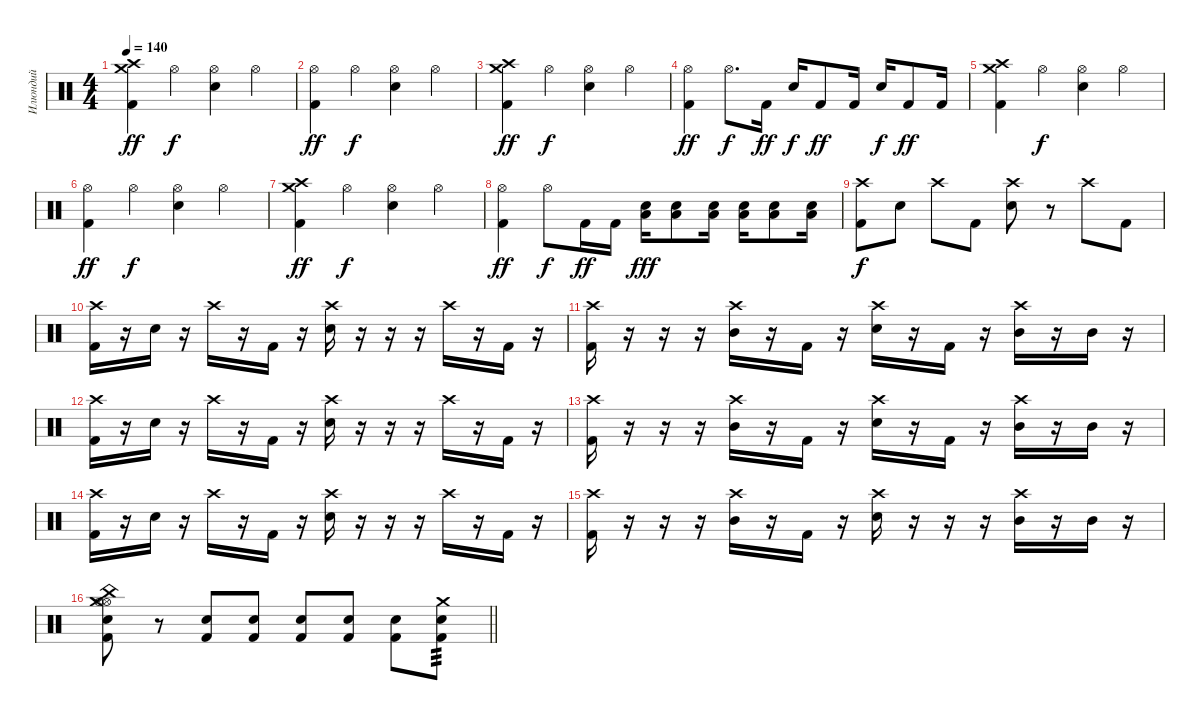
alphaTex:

\track ("Илюндий" "Илюндий") {instrument percussion}
\staff {score}
\articulation defaults
\ts (4 4)
\tempo 140
\clef neutral
\ks c
("Crash medium (hit)" "Crash high (hit)" "Kick (hit) 2").4{dy ff} "Hi-Hat (open)".4{dy f} ("Hi-Hat (open)" "Electric Snare (hit)").4 "Hi-Hat (open)".4 |
("Hi-Hat (open)" "Kick (hit) 2").4{dy ff} "Hi-Hat (open)".4{dy f} ("Hi-Hat (open)" "Electric Snare (hit)").4 "Hi-Hat (open)".4 |
("Crash medium (hit)" "Crash high (hit)" "Kick (hit) 2").4{dy ff} "Hi-Hat (open)".4{dy f} ("Hi-Hat (open)" "Electric Snare (hit)").4 "Hi-Hat (open)".4 |
("Hi-Hat (open)" "Kick (hit) 2").4{dy ff} "Hi-Hat (open)".8{d dy f} "Kick (hit) 2".16{dy ff} "Electric Snare (hit)".16{dy f} "Kick (hit) 2".8{dy ff} "Kick (hit) 2".16 "Electric Snare (hit)".16{dy f} "Kick (hit) 2".8{dy ff} "Kick (hit) 2".16 |
("Crash medium (hit)" "Crash high (hit)" "Kick (hit) 2").4 "Hi-Hat (open)".4{dy f} ("Hi-Hat (open)" "Electric Snare (hit)").4 "Hi-Hat (open)".4 |
("Hi-Hat (open)" "Kick (hit) 2").4{dy ff} "Hi-Hat (open)".4{dy f} ("Hi-Hat (open)" "Electric Snare (hit)").4 "Hi-Hat (open)".4 |
("Crash medium (hit)" "Crash high (hit)" "Kick (hit) 2").4{dy ff} "Hi-Hat (open)".4{dy f} ("Hi-Hat (open)" "Electric Snare (hit)").4 "Hi-Hat (open)".4 |
("Hi-Hat (open)" "Kick (hit) 2").4{dy ff} "Hi-Hat (open)".8{dy f} "Kick (hit) 2".16{dy ff} "Kick (hit) 2".16 ("Electric Snare (hit)" "Low Floor Tom (hit)").16{dy fff} ("Electric Snare (hit)" "Low Floor Tom (hit)").8 ("Electric Snare (hit)" "Low Floor Tom (hit)").16 ("Electric Snare (hit)" "Low Floor Tom (hit)").16 ("Electric Snare (hit)" "Low Floor Tom (hit)").8 ("Electric Snare (hit)" "Low Floor Tom (hit)").16 |
("Crash high (hit)" "Kick (hit) 2").8{dy f} "Electric Snare (hit)".8 "Crash high (hit)".8 "Kick (hit) 2".8 ("Crash high (hit)" "Electric Snare (hit)").8 r.8 "Crash high (hit)".8 "Kick (hit) 2".8 |
("Crash high (hit)" "Kick (hit) 2").16 r.16 "Electric Snare (hit)".16 r.16 "Crash high (hit)".16 r.16 "Kick (hit) 2".16 r.16 ("Crash high (hit)" "Electric Snare (hit)").16 r.16 r.16 r.16 "Crash high (hit)".16 r.16 "Kick (hit) 2".16 r.16 |
("Crash high (hit)" "Kick (hit) 2").16 r.16 r.16 r.16 ("Crash high (hit)" "Mid Tom (hit)").16 r.16 "Kick (hit) 2".16 r.16 ("Crash high (hit)" "Electric Snare (hit)").16 r.16 "Kick (hit) 2".16 r.16 ("Crash high (hit)" "Mid Tom (hit)").16 r.16 "Mid Tom (hit)".16 r.16 |
("Crash high (hit)" "Kick (hit) 2").16 r.16 "Electric Snare (hit)".16 r.16 "Crash high (hit)".16 r.16 "Kick (hit) 2".16 r.16 ("Crash high (hit)" "Electric Snare (hit)").16 r.16 r.16 r.16 "Crash high (hit)".16 r.16 "Kick (hit) 2".16 r.16 |
("Crash high (hit)" "Kick (hit) 2").16 r.16 r.16 r.16 ("Crash high (hit)" "Mid Tom (hit)").16 r.16 "Kick (hit) 2".16 r.16 ("Crash high (hit)" "Electric Snare (hit)").16 r.16 "Kick (hit) 2".16 r.16 ("Crash high (hit)" "Mid Tom (hit)").16 r.16 "Mid Tom (hit)".16 r.16 |
("Crash high (hit)" "Kick (hit) 2").16 r.16 "Electric Snare (hit)".16 r.16 "Crash high (hit)".16 r.16 "Kick (hit) 2".16 r.16 ("Crash high (hit)" "Electric Snare (hit)").16 r.16 r.16 r.16 "Crash high (hit)".16 r.16 "Kick (hit) 2".16 r.16 |
("Crash high (hit)" "Kick (hit) 2").16 r.16 r.16 r.16 ("Crash high (hit)" "Mid Tom (hit)").16 r.16 "Kick (hit) 2".16 r.16 ("Crash high (hit)" "Electric Snare (hit)").16 r.16 r.16 r.16 ("Crash high (hit)" "Mid Tom (hit)").16 r.16 "Mid Tom (hit)".16 r.16 |
\barLineRight lightlight
("Hi-Hat (open)" "Crash medium (hit)" "China (hit)" "Hi-Hat (open)" "Kick (hit) 2" "Snare (hit) 2").8 r.8 ("Kick (hit) 2" "Snare (hit) 2").8{volume 5} ("Kick (hit) 2" "Snare (hit) 2").8{volume 7} ("Kick (hit) 2" "Snare (hit) 2").8{volume 9} ("Kick (hit) 2" "Snare (hit) 2").8{volume 11} ("Kick (hit) 2" "Snare (hit) 2").8{volume 13} ("Kick (hit) 2" "Snare (hit) 2" "Crash medium (hit)").8{tp 3}
